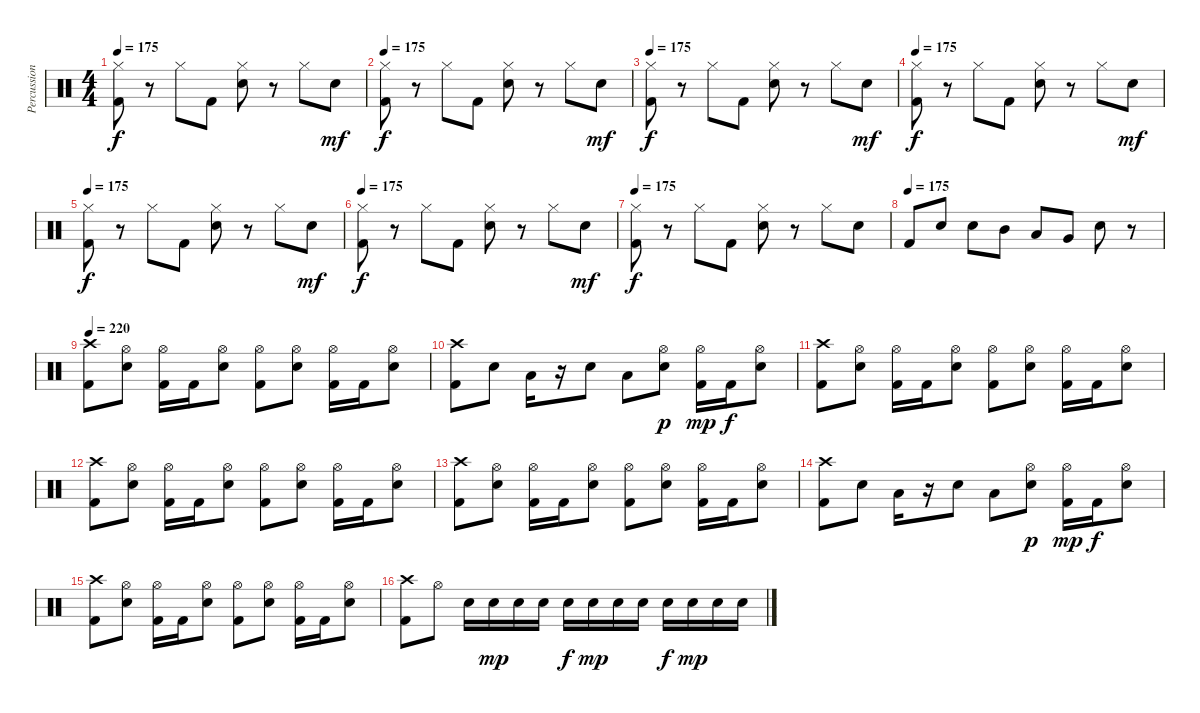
\track ("Percussions" "Percussion") {instrument percussion}
\staff {score}
\articulation defaults
\ts (4 4)
\tempo 175
\clef neutral
\ks c
("Hi-Hat (closed)" "Kick (hit) 2").8{dy f} r.8 "Hi-Hat (closed)".8 "Kick (hit) 2".8 ("Hi-Hat (closed)" "Snare (hit) 2").8 r.8 "Hi-Hat (closed)".8 "Snare (hit) 2".8{dy mf} |
\tempo 175
("Hi-Hat (closed)" "Kick (hit) 2").8{dy f} r.8 "Hi-Hat (closed)".8 "Kick (hit) 2".8 ("Hi-Hat (closed)" "Snare (hit) 2").8 r.8 "Hi-Hat (closed)".8 "Snare (hit) 2".8{dy mf} |
\tempo 175
("Hi-Hat (closed)" "Kick (hit) 2").8{dy f} r.8 "Hi-Hat (closed)".8 "Kick (hit) 2".8 ("Hi-Hat (closed)" "Snare (hit) 2").8 r.8 "Hi-Hat (closed)".8 "Snare (hit) 2".8{dy mf} |
\tempo 175
("Hi-Hat (closed)" "Kick (hit) 2").8{dy f} r.8 "Hi-Hat (closed)".8 "Kick (hit) 2".8 ("Hi-Hat (closed)" "Snare (hit) 2").8 r.8 "Hi-Hat (closed)".8 "Snare (hit) 2".8{dy mf} |
\tempo 175
("Hi-Hat (closed)" "Kick (hit) 2").8{dy f} r.8 "Hi-Hat (closed)".8 "Kick (hit) 2".8 ("Hi-Hat (closed)" "Snare (hit) 2").8 r.8 "Hi-Hat (closed)".8 "Snare (hit) 2".8{dy mf} |
\tempo 175
("Hi-Hat (closed)" "Kick (hit) 2").8{dy f} r.8 "Hi-Hat (closed)".8 "Kick (hit) 2".8 ("Hi-Hat (closed)" "Snare (hit) 2").8 r.8 "Hi-Hat (closed)".8 "Snare (hit) 2".8{dy mf} |
\tempo 175
("Hi-Hat (closed)" "Kick (hit) 2").8{dy f} r.8 "Hi-Hat (closed)".8 "Kick (hit) 2".8 ("Hi-Hat (closed)" "Snare (hit) 2").8 r.8 "Hi-Hat (closed)".8 "Snare (hit) 2".8 |
\tempo (175)
"Kick (hit) 2".8 "Snare (hit) 2".8 "Snare (hit) 2".8 "Mid Tom (hit)".8 "Low Tom (hit)".8 "Very Low Tom (hit)".8 "Snare (hit) 2".8 r.8 |
\tempo 220
("Crash high (hit)" "Kick (hit) 2").8 ("Hi-Hat (open)" "Snare (hit) 2").8 ("Hi-Hat (open)" "Kick (hit) 2").16 "Kick (hit) 2".16 ("Hi-Hat (open)" "Snare (hit) 2").8 ("Hi-Hat (open)" "Kick (hit) 2").8 ("Hi-Hat (open)" "Snare (hit) 2").8 ("Hi-Hat (open)" "Kick (hit) 2").16 "Kick (hit) 2".16 ("Hi-Hat (open)" "Snare (hit) 2").8 |
("Crash high (hit)" "Kick (hit) 2").8 "Snare (hit) 2".8 "Low Tom (hit)".16 r.16 "Snare (hit) 2".8 "Low Tom (hit)".8 ("Hi-Hat (open)" "Snare (hit) 2").8{dy p} ("Hi-Hat (open)" "Kick (hit) 2").16{dy mp} "Kick (hit) 2".16{dy f} ("Hi-Hat (open)" "Snare (hit) 2").8 |
("Crash high (hit)" "Kick (hit) 2").8 ("Hi-Hat (open)" "Snare (hit) 2").8 ("Hi-Hat (open)" "Kick (hit) 2").16 "Kick (hit) 2".16 ("Hi-Hat (open)" "Snare (hit) 2").8 ("Hi-Hat (open)" "Kick (hit) 2").8 ("Hi-Hat (open)" "Snare (hit) 2").8 ("Hi-Hat (open)" "Kick (hit) 2").16 "Kick (hit) 2".16 ("Hi-Hat (open)" "Snare (hit) 2").8 |
("Crash high (hit)" "Kick (hit) 2").8 ("Hi-Hat (open)" "Snare (hit) 2").8 ("Hi-Hat (open)" "Kick (hit) 2").16 "Kick (hit) 2".16 ("Hi-Hat (open)" "Snare (hit) 2").8 ("Hi-Hat (open)" "Kick (hit) 2").8 ("Hi-Hat (open)" "Snare (hit) 2").8 ("Hi-Hat (open)" "Kick (hit) 2").16 "Kick (hit) 2".16 ("Hi-Hat (open)" "Snare (hit) 2").8 |
("Crash high (hit)" "Kick (hit) 2").8 ("Hi-Hat (open)" "Snare (hit) 2").8 ("Hi-Hat (open)" "Kick (hit) 2").16 "Kick (hit) 2".16 ("Hi-Hat (open)" "Snare (hit) 2").8 ("Hi-Hat (open)" "Kick (hit) 2").8 ("Hi-Hat (open)" "Snare (hit) 2").8 ("Hi-Hat (open)" "Kick (hit) 2").16 "Kick (hit) 2".16 ("Hi-Hat (open)" "Snare (hit) 2").8 |
("Crash high (hit)" "Kick (hit) 2").8 "Snare (hit) 2".8 "Low Tom (hit)".16 r.16 "Snare (hit) 2".8 "Low Tom (hit)".8 ("Hi-Hat (open)" "Snare (hit) 2").8{dy p} ("Hi-Hat (open)" "Kick (hit) 2").16{dy mp} "Kick (hit) 2".16{dy f} ("Hi-Hat (open)" "Snare (hit) 2").8 |
("Crash high (hit)" "Kick (hit) 2").8 ("Hi-Hat (open)" "Snare (hit) 2").8 ("Hi-Hat (open)" "Kick (hit) 2").16 "Kick (hit) 2".16 ("Hi-Hat (open)" "Snare (hit) 2").8 ("Hi-Hat (open)" "Kick (hit) 2").8 ("Hi-Hat (open)" "Snare (hit) 2").8 ("Hi-Hat (open)" "Kick (hit) 2").16 "Kick (hit) 2".16 ("Hi-Hat (open)" "Snare (hit) 2").8 |
("Crash high (hit)" "Kick (hit) 2").8 "Hi-Hat (open)".8 "Snare (hit) 2".16 "Snare (hit) 2".16{dy mp} "Snare (hit) 2".16 "Snare (hit) 2".16 "Snare (hit) 2".16{dy f} "Snare (hit) 2".16{dy mp} "Snare (hit) 2".16 "Snare (hit) 2".16 "Snare (hit) 2".16{dy f} "Snare (hit) 2".16{dy mp} "Snare (hit) 2".16 "Snare (hit) 2".16
